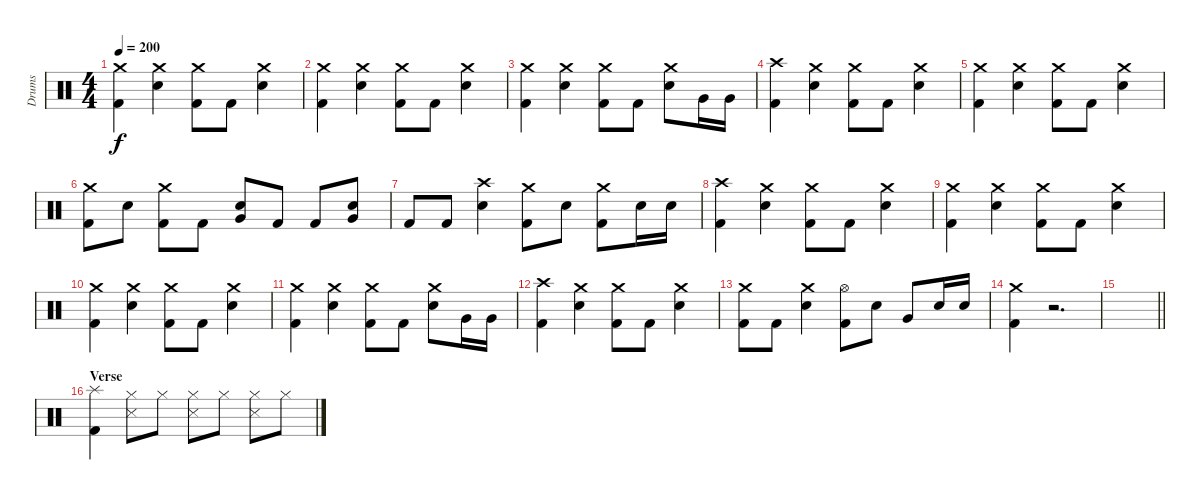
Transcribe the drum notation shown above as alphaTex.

\track ("Drums" "Drums") {instrument percussion}
\staff {score}
\articulation defaults
\ts (4 4)
\tempo 200
\clef neutral
\ks c
("Crash medium (hit)" "Kick (hit) 2").4{dy f} ("Crash medium (hit)" "Snare (hit) 2").4 ("Crash medium (hit)" "Kick (hit) 2").8 "Kick (hit) 2".8 ("Crash medium (hit)" "Snare (hit) 2").4 |
("Crash medium (hit)" "Kick (hit) 2").4 ("Crash medium (hit)" "Snare (hit) 2").4 ("Crash medium (hit)" "Kick (hit) 2").8 "Kick (hit) 2".8 ("Crash medium (hit)" "Snare (hit) 2").4 |
("Crash medium (hit)" "Kick (hit) 2").4 ("Crash medium (hit)" "Snare (hit) 2").4 ("Crash medium (hit)" "Kick (hit) 2").8 "Kick (hit) 2".8 ("Crash medium (hit)" "Snare (hit) 2").8 "Very Low Tom (hit)".16 "Very Low Tom (hit)".16 |
("Crash high (hit)" "Kick (hit) 2").4 ("Crash medium (hit)" "Snare (hit) 2").4 ("Crash medium (hit)" "Kick (hit) 2").8 "Kick (hit) 2".8 ("Crash medium (hit)" "Snare (hit) 2").4 |
("Crash medium (hit)" "Kick (hit) 2").4 ("Crash medium (hit)" "Snare (hit) 2").4 ("Crash medium (hit)" "Kick (hit) 2").8 "Kick (hit) 2".8 ("Crash medium (hit)" "Snare (hit) 2").4 |
("Crash medium (hit)" "Kick (hit) 2").8 "Snare (hit) 2".8 ("Crash medium (hit)" "Kick (hit) 2").8 "Kick (hit) 2".8 ("Snare (hit) 2" "Very Low Tom (hit)").8 "Kick (hit) 2".8 "Kick (hit) 2".8 ("Snare (hit) 2" "Very Low Tom (hit)").8 |
"Kick (hit) 2".8 "Kick (hit) 2".8 ("Crash high (hit)" "Snare (hit) 2").4 ("Crash medium (hit)" "Kick (hit) 2").8 "Snare (hit) 2".8 ("Crash medium (hit)" "Kick (hit) 2").8 "Snare (hit) 2".16 "Snare (hit) 2".16 |
("Crash high (hit)" "Kick (hit) 2").4 ("Crash medium (hit)" "Snare (hit) 2").4 ("Crash medium (hit)" "Kick (hit) 2").8 "Kick (hit) 2".8 ("Crash medium (hit)" "Snare (hit) 2").4 |
("Crash medium (hit)" "Kick (hit) 2").4 ("Crash medium (hit)" "Snare (hit) 2").4 ("Crash medium (hit)" "Kick (hit) 2").8 "Kick (hit) 2".8 ("Crash medium (hit)" "Snare (hit) 2").4 |
("Crash medium (hit)" "Kick (hit) 2").4 ("Crash medium (hit)" "Snare (hit) 2").4 ("Crash medium (hit)" "Kick (hit) 2").8 "Kick (hit) 2".8 ("Crash medium (hit)" "Snare (hit) 2").4 |
("Crash medium (hit)" "Kick (hit) 2").4 ("Crash medium (hit)" "Snare (hit) 2").4 ("Crash medium (hit)" "Kick (hit) 2").8 "Kick (hit) 2".8 ("Crash medium (hit)" "Snare (hit) 2").8 "Very Low Tom (hit)".16 "Very Low Tom (hit)".16 |
("Crash high (hit)" "Kick (hit) 2").4 ("Crash medium (hit)" "Snare (hit) 2").4 ("Crash medium (hit)" "Kick (hit) 2").8 "Kick (hit) 2".8 ("Crash medium (hit)" "Snare (hit) 2").4 |
("Crash medium (hit)" "Kick (hit) 2").8 "Kick (hit) 2".8 ("Crash medium (hit)" "Snare (hit) 2").4 ("Hi-Hat (open)" "Kick (hit) 2").8 "Snare (hit) 2".8 "Very Low Tom (hit)".8 "Snare (hit) 2".16 "Snare (hit) 2".16 |
("Crash medium (hit)" "Kick (hit) 2").4 r.2{d} |
\barLineRight lightlight
|
\section ("" "Verse")
("Splash (hit)" "Kick (hit) 2").4 ("Hi-Hat (closed)" "Snare (side stick) 3").8 "Hi-Hat (closed)".8 ("Hi-Hat (closed)" "Snare (side stick) 3").8 "Hi-Hat (closed)".8 ("Hi-Hat (closed)" "Snare (side stick) 3").8 "Hi-Hat (closed)".8
